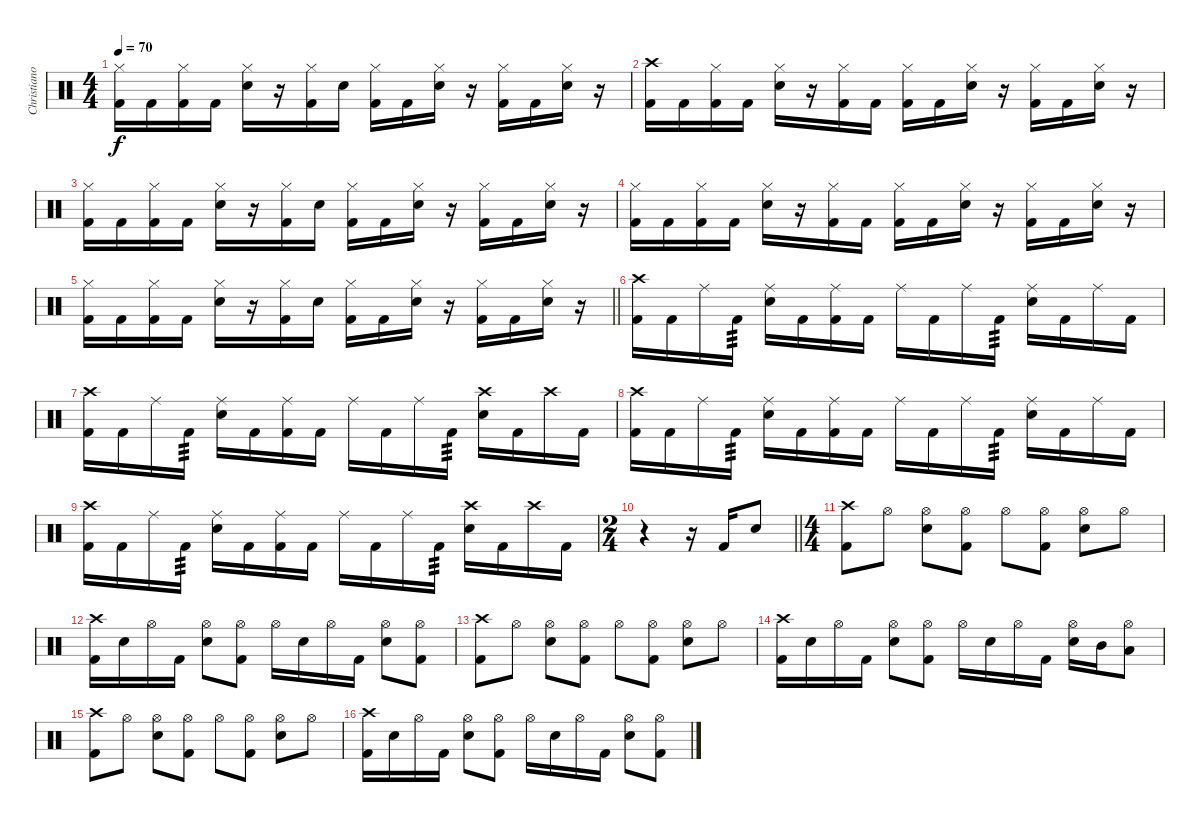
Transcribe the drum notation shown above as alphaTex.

\track ("Christiano Mozzati" "Christiano") {instrument percussion}
\staff {score}
\articulation defaults
\ts (4 4)
\tempo 70
\clef neutral
\ks c
("Hi-Hat (closed)" "Kick (hit) 2").16{dy f} "Kick (hit) 2".16 ("Hi-Hat (closed)" "Kick (hit) 2").16 "Kick (hit) 2".16 ("Hi-Hat (closed)" "Snare (hit) 2").16 r.16 ("Hi-Hat (closed)" "Kick (hit) 2").16 "Snare (hit) 2".16 ("Hi-Hat (closed)" "Kick (hit) 2").16 "Kick (hit) 2".16 ("Hi-Hat (closed)" "Snare (hit) 2").16 r.16 ("Hi-Hat (closed)" "Kick (hit) 2").16 "Kick (hit) 2".16 ("Hi-Hat (closed)" "Snare (hit) 2").16 r.16 |
("Crash high (hit)" "Kick (hit) 2").16 "Kick (hit) 2".16 ("Hi-Hat (closed)" "Kick (hit) 2").16 "Kick (hit) 2".16 ("Hi-Hat (closed)" "Snare (hit) 2").16 r.16 ("Hi-Hat (closed)" "Kick (hit) 2").16 "Kick (hit) 2".16 ("Hi-Hat (closed)" "Kick (hit) 2").16 "Kick (hit) 2".16 ("Hi-Hat (closed)" "Snare (hit) 2").16 r.16 ("Hi-Hat (closed)" "Kick (hit) 2").16 "Kick (hit) 2".16 ("Hi-Hat (closed)" "Snare (hit) 2").16 r.16 |
("Hi-Hat (closed)" "Kick (hit) 2").16 "Kick (hit) 2".16 ("Hi-Hat (closed)" "Kick (hit) 2").16 "Kick (hit) 2".16 ("Hi-Hat (closed)" "Snare (hit) 2").16 r.16 ("Hi-Hat (closed)" "Kick (hit) 2").16 "Snare (hit) 2".16 ("Hi-Hat (closed)" "Kick (hit) 2").16 "Kick (hit) 2".16 ("Hi-Hat (closed)" "Snare (hit) 2").16 r.16 ("Hi-Hat (closed)" "Kick (hit) 2").16 "Kick (hit) 2".16 ("Hi-Hat (closed)" "Snare (hit) 2").16 r.16 |
("Hi-Hat (closed)" "Kick (hit) 2").16 "Kick (hit) 2".16 ("Hi-Hat (closed)" "Kick (hit) 2").16 "Kick (hit) 2".16 ("Hi-Hat (closed)" "Snare (hit) 2").16 r.16 ("Hi-Hat (closed)" "Kick (hit) 2").16 "Kick (hit) 2".16 ("Hi-Hat (closed)" "Kick (hit) 2").16 "Kick (hit) 2".16 ("Hi-Hat (closed)" "Snare (hit) 2").16 r.16 ("Hi-Hat (closed)" "Kick (hit) 2").16 "Kick (hit) 2".16 ("Hi-Hat (closed)" "Snare (hit) 2").16 r.16 |
\barLineRight lightlight
("Hi-Hat (closed)" "Kick (hit) 2").16 "Kick (hit) 2".16 ("Hi-Hat (closed)" "Kick (hit) 2").16 "Kick (hit) 2".16 ("Hi-Hat (closed)" "Snare (hit) 2").16 r.16 ("Hi-Hat (closed)" "Kick (hit) 2").16 "Snare (hit) 2".16 ("Hi-Hat (closed)" "Kick (hit) 2").16 "Kick (hit) 2".16 ("Hi-Hat (closed)" "Snare (hit) 2").16 r.16 ("Hi-Hat (closed)" "Kick (hit) 2").16 "Kick (hit) 2".16 ("Hi-Hat (closed)" "Snare (hit) 2").16 r.16 |
("Crash high (hit)" "Kick (hit) 2").16 "Kick (hit) 2".16 "Ride (middle)".16 "Kick (hit) 2".16{tp 3} ("Ride (middle)" "Snare (hit) 2").16 "Kick (hit) 2".16 ("Ride (middle)" "Kick (hit) 2").16 "Kick (hit) 2".16 "Ride (middle)".16 "Kick (hit) 2".16 "Ride (middle)".16 "Kick (hit) 2".16{tp 3} ("Ride (middle)" "Snare (hit) 2").16 "Kick (hit) 2".16 "Ride (middle)".16 "Kick (hit) 2".16 |
("Crash high (hit)" "Kick (hit) 2").16 "Kick (hit) 2".16 "Ride (middle)".16 "Kick (hit) 2".16{tp 3} ("Ride (middle)" "Snare (hit) 2").16 "Kick (hit) 2".16 ("Ride (middle)" "Kick (hit) 2").16 "Kick (hit) 2".16 "Ride (middle)".16 "Kick (hit) 2".16 "Ride (middle)".16 "Kick (hit) 2".16{tp 3} ("Crash high (hit)" "Snare (hit) 2").16 "Kick (hit) 2".16 "Crash high (hit)".16 "Kick (hit) 2".16 |
("Crash high (hit)" "Kick (hit) 2").16 "Kick (hit) 2".16 "Ride (middle)".16 "Kick (hit) 2".16{tp 3} ("Ride (middle)" "Snare (hit) 2").16 "Kick (hit) 2".16 ("Ride (middle)" "Kick (hit) 2").16 "Kick (hit) 2".16 "Ride (middle)".16 "Kick (hit) 2".16 "Ride (middle)".16 "Kick (hit) 2".16{tp 3} ("Ride (middle)" "Snare (hit) 2").16 "Kick (hit) 2".16 "Ride (middle)".16 "Kick (hit) 2".16 |
("Crash high (hit)" "Kick (hit) 2").16 "Kick (hit) 2".16 "Ride (middle)".16 "Kick (hit) 2".16{tp 3} ("Ride (middle)" "Snare (hit) 2").16 "Kick (hit) 2".16 ("Ride (middle)" "Kick (hit) 2").16 "Kick (hit) 2".16 "Ride (middle)".16 "Kick (hit) 2".16 "Ride (middle)".16 "Kick (hit) 2".16{tp 3} ("Crash high (hit)" "Snare (hit) 2").16 "Kick (hit) 2".16 "Crash high (hit)".16 "Kick (hit) 2".16 |
\ts (2 4)
\barLineRight lightlight
r.4 r.16 "Kick (hit) 2".16 "Snare (hit) 2".8 |
\ts (4 4)
("Crash high (hit)" "Kick (hit) 2").8 "Hi-Hat (open)".8 ("Hi-Hat (open)" "Snare (hit) 2").8 ("Hi-Hat (open)" "Kick (hit) 2").8 "Hi-Hat (open)".8 ("Hi-Hat (open)" "Kick (hit) 2").8 ("Hi-Hat (open)" "Snare (hit) 2").8 "Hi-Hat (open)".8 |
("Crash high (hit)" "Kick (hit) 2").16 "Snare (hit) 2".16 "Hi-Hat (open)".16 "Kick (hit) 2".16 ("Hi-Hat (open)" "Snare (hit) 2").8 ("Hi-Hat (open)" "Kick (hit) 2").8 "Hi-Hat (open)".16 "Snare (hit) 2".16 "Hi-Hat (open)".16 "Kick (hit) 2".16 ("Hi-Hat (open)" "Snare (hit) 2").8 ("Hi-Hat (open)" "Kick (hit) 2").8 |
("Crash high (hit)" "Kick (hit) 2").8 "Hi-Hat (open)".8 ("Hi-Hat (open)" "Snare (hit) 2").8 ("Hi-Hat (open)" "Kick (hit) 2").8 "Hi-Hat (open)".8 ("Hi-Hat (open)" "Kick (hit) 2").8 ("Hi-Hat (open)" "Snare (hit) 2").8 "Hi-Hat (open)".8 |
("Crash high (hit)" "Kick (hit) 2").16 "Snare (hit) 2".16 "Hi-Hat (open)".16 "Kick (hit) 2".16 ("Hi-Hat (open)" "Snare (hit) 2").8 ("Hi-Hat (open)" "Kick (hit) 2").8 "Hi-Hat (open)".16 "Snare (hit) 2".16 "Hi-Hat (open)".16 "Kick (hit) 2".16 ("Hi-Hat (open)" "Snare (hit) 2").16 "Mid Tom (hit)".16 ("Hi-Hat (open)" "Low Tom (hit)").8 |
("Crash high (hit)" "Kick (hit) 2").8 "Hi-Hat (open)".8 ("Hi-Hat (open)" "Snare (hit) 2").8 ("Hi-Hat (open)" "Kick (hit) 2").8 "Hi-Hat (open)".8 ("Hi-Hat (open)" "Kick (hit) 2").8 ("Hi-Hat (open)" "Snare (hit) 2").8 "Hi-Hat (open)".8 |
("Crash high (hit)" "Kick (hit) 2").16 "Snare (hit) 2".16 "Hi-Hat (open)".16 "Kick (hit) 2".16 ("Hi-Hat (open)" "Snare (hit) 2").8 ("Hi-Hat (open)" "Kick (hit) 2").8 "Hi-Hat (open)".16 "Snare (hit) 2".16 "Hi-Hat (open)".16 "Kick (hit) 2".16 ("Hi-Hat (open)" "Snare (hit) 2").8 ("Hi-Hat (open)" "Kick (hit) 2").8
